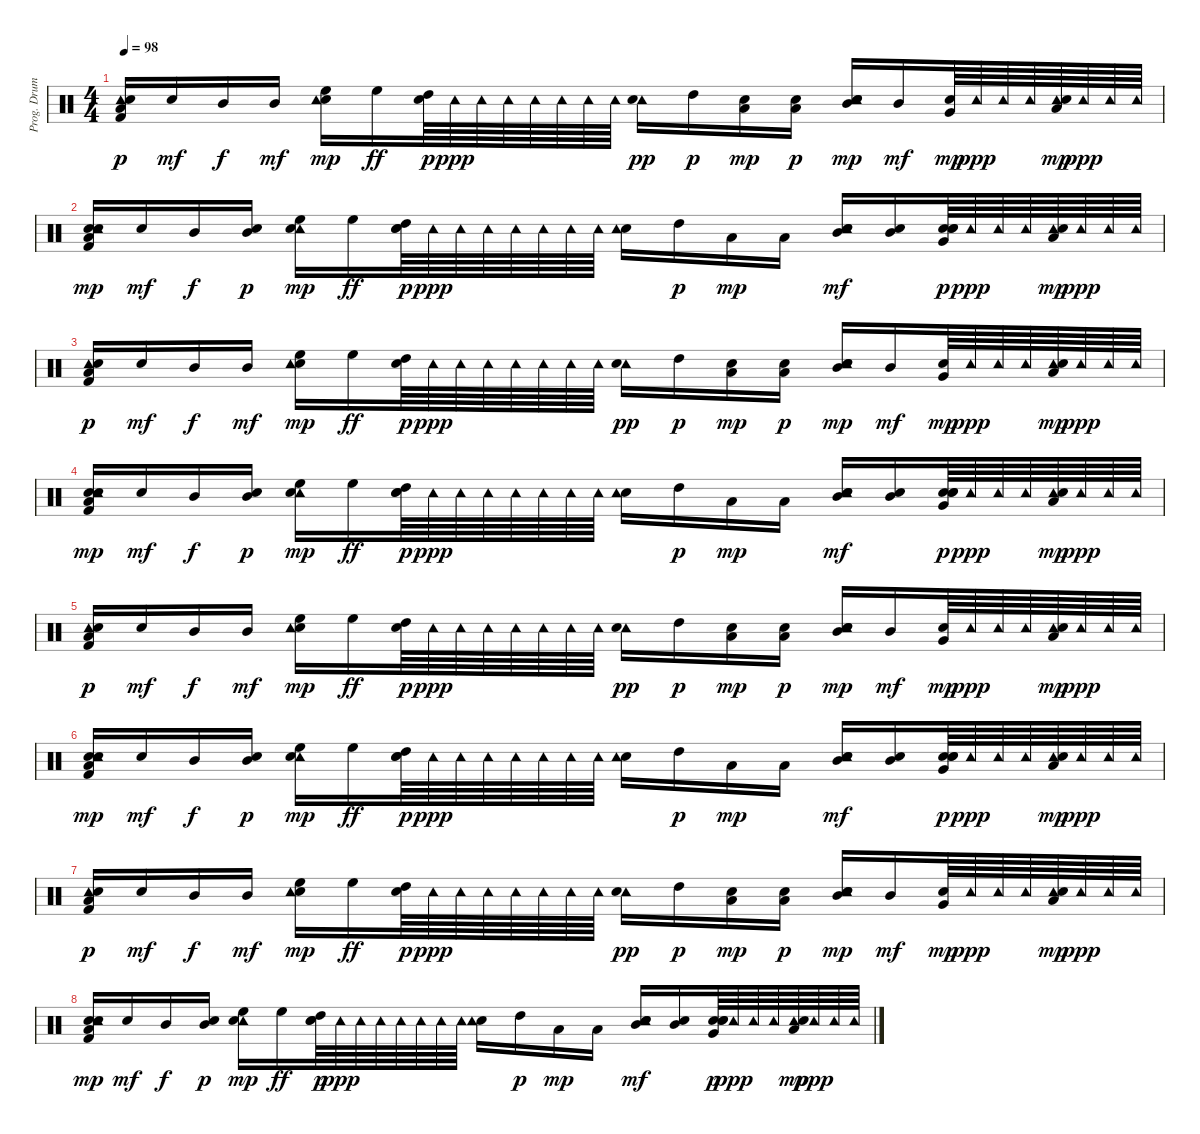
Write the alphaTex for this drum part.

\track ("Prog. Drums" "Prog. Drum") {instrument percussion}
\staff {score}
\articulation defaults
\ts (4 4)
\tempo 98
\clef neutral
\ks c
("Tambourine (hit)" "Snare (hit)" "Low Floor Tom (hit)" "Kick (hit) 2").16{dy p} "Snare (hit)".16{dy mf} "Mid Tom (hit)".16{dy f} "Mid Tom (hit)".16{dy mf} ("Snare (hit) 2" "High Floor Tom (hit)" "Tambourine (hit)").16{dy mp} "High Floor Tom (hit)".16{dy ff} ("High Tom (hit)" "Snare (hit)").64{dy p} "Tambourine (hit)".64{dy ppp} "Tambourine (hit)".64 "Tambourine (hit)".64 "Tambourine (hit)".64 "Tambourine (hit)".64 "Tambourine (hit)".64 "Tambourine (hit)".64 ("Tambourine (hit)" "Snare (hit) 2").16{dy pp} "High Tom (hit)".16{dy p} ("Snare (hit)" "Low Tom (hit)").16{dy mp} ("Low Tom (hit)" "Snare (hit)").16{dy p} ("Snare (hit) 2" "Mid Tom (hit)" "Snare (hit)" "Tambourine (hit)").16{dy mp} "Mid Tom (hit)".16{dy mf} ("Snare (hit)" "Very Low Tom (hit)").64{dy mp} "Tambourine (hit)".64{dy ppp} "Tambourine (hit)".64 "Tambourine (hit)".64 ("Tambourine (hit)" "Snare (hit) 2" "Low Tom (hit)").64{dy mp} "Tambourine (hit)".64{dy ppp} "Tambourine (hit)".64 "Tambourine (hit)".64 |
("Snare (hit)" "Snare (hit)" "Tambourine (hit)" "Kick (hit) 2" "Low Floor Tom (hit)").16{dy mp} "Snare (hit)".16{dy mf} "Mid Tom (hit)".16{dy f} ("Mid Tom (hit)" "Snare (hit)").16{dy p} ("Tambourine (hit)" "High Floor Tom (hit)" "Snare (hit) 2").16{dy mp} "High Floor Tom (hit)".16{dy ff} ("High Tom (hit)" "Snare (hit)" "Snare (hit)").64{dy p} "Tambourine (hit)".64{dy ppp} "Tambourine (hit)".64 "Tambourine (hit)".64 "Tambourine (hit)".64 "Tambourine (hit)".64 "Tambourine (hit)".64 "Tambourine (hit)".64 ("Snare (hit) 2" "Tambourine (hit)").16 "High Tom (hit)".16{dy p} "Low Tom (hit)".16{dy mp} "Low Tom (hit)".16 ("Tambourine (hit)" "Snare (hit)" "Snare (hit) 2" "Mid Tom (hit)").16{dy mf} ("Snare (hit) 2" "Mid Tom (hit)").16 ("Snare (hit) 2" "Very Low Tom (hit)" "Snare (hit)" "Snare (hit)").64{dy p} "Tambourine (hit)".64{dy ppp} "Tambourine (hit)".64 "Tambourine (hit)".64 ("Tambourine (hit)" "Snare (hit) 2" "Low Tom (hit)").64{dy mp} "Tambourine (hit)".64{dy ppp} "Tambourine (hit)".64 "Tambourine (hit)".64 |
("Tambourine (hit)" "Snare (hit)" "Low Floor Tom (hit)" "Kick (hit) 2").16{dy p} "Snare (hit)".16{dy mf} "Mid Tom (hit)".16{dy f} "Mid Tom (hit)".16{dy mf} ("Snare (hit) 2" "High Floor Tom (hit)" "Tambourine (hit)").16{dy mp} "High Floor Tom (hit)".16{dy ff} ("High Tom (hit)" "Snare (hit)").64{dy p} "Tambourine (hit)".64{dy ppp} "Tambourine (hit)".64 "Tambourine (hit)".64 "Tambourine (hit)".64 "Tambourine (hit)".64 "Tambourine (hit)".64 "Tambourine (hit)".64 ("Tambourine (hit)" "Snare (hit) 2").16{dy pp} "High Tom (hit)".16{dy p} ("Snare (hit)" "Low Tom (hit)").16{dy mp} ("Low Tom (hit)" "Snare (hit)").16{dy p} ("Snare (hit) 2" "Mid Tom (hit)" "Snare (hit)" "Tambourine (hit)").16{dy mp} "Mid Tom (hit)".16{dy mf} ("Snare (hit)" "Very Low Tom (hit)").64{dy mp} "Tambourine (hit)".64{dy ppp} "Tambourine (hit)".64 "Tambourine (hit)".64 ("Tambourine (hit)" "Snare (hit) 2" "Low Tom (hit)").64{dy mp} "Tambourine (hit)".64{dy ppp} "Tambourine (hit)".64 "Tambourine (hit)".64 |
("Snare (hit)" "Snare (hit)" "Tambourine (hit)" "Kick (hit) 2" "Low Floor Tom (hit)").16{dy mp} "Snare (hit)".16{dy mf} "Mid Tom (hit)".16{dy f} ("Mid Tom (hit)" "Snare (hit)").16{dy p} ("Tambourine (hit)" "High Floor Tom (hit)" "Snare (hit) 2").16{dy mp} "High Floor Tom (hit)".16{dy ff} ("High Tom (hit)" "Snare (hit)" "Snare (hit)").64{dy p} "Tambourine (hit)".64{dy ppp} "Tambourine (hit)".64 "Tambourine (hit)".64 "Tambourine (hit)".64 "Tambourine (hit)".64 "Tambourine (hit)".64 "Tambourine (hit)".64 ("Snare (hit) 2" "Tambourine (hit)").16 "High Tom (hit)".16{dy p} "Low Tom (hit)".16{dy mp} "Low Tom (hit)".16 ("Tambourine (hit)" "Snare (hit)" "Snare (hit) 2" "Mid Tom (hit)").16{dy mf} ("Snare (hit) 2" "Mid Tom (hit)").16 ("Snare (hit) 2" "Very Low Tom (hit)" "Snare (hit)" "Snare (hit)").64{dy p} "Tambourine (hit)".64{dy ppp} "Tambourine (hit)".64 "Tambourine (hit)".64 ("Tambourine (hit)" "Snare (hit) 2" "Low Tom (hit)").64{dy mp} "Tambourine (hit)".64{dy ppp} "Tambourine (hit)".64 "Tambourine (hit)".64 |
("Tambourine (hit)" "Snare (hit)" "Low Floor Tom (hit)" "Kick (hit) 2").16{dy p} "Snare (hit)".16{dy mf} "Mid Tom (hit)".16{dy f} "Mid Tom (hit)".16{dy mf} ("Snare (hit) 2" "High Floor Tom (hit)" "Tambourine (hit)").16{dy mp} "High Floor Tom (hit)".16{dy ff} ("High Tom (hit)" "Snare (hit)").64{dy p} "Tambourine (hit)".64{dy ppp} "Tambourine (hit)".64 "Tambourine (hit)".64 "Tambourine (hit)".64 "Tambourine (hit)".64 "Tambourine (hit)".64 "Tambourine (hit)".64 ("Tambourine (hit)" "Snare (hit) 2").16{dy pp} "High Tom (hit)".16{dy p} ("Snare (hit)" "Low Tom (hit)").16{dy mp} ("Low Tom (hit)" "Snare (hit)").16{dy p} ("Snare (hit) 2" "Mid Tom (hit)" "Snare (hit)" "Tambourine (hit)").16{dy mp} "Mid Tom (hit)".16{dy mf} ("Snare (hit)" "Very Low Tom (hit)").64{dy mp} "Tambourine (hit)".64{dy ppp} "Tambourine (hit)".64 "Tambourine (hit)".64 ("Tambourine (hit)" "Snare (hit) 2" "Low Tom (hit)").64{dy mp} "Tambourine (hit)".64{dy ppp} "Tambourine (hit)".64 "Tambourine (hit)".64 |
("Snare (hit)" "Snare (hit)" "Tambourine (hit)" "Kick (hit) 2" "Low Floor Tom (hit)").16{dy mp} "Snare (hit)".16{dy mf} "Mid Tom (hit)".16{dy f} ("Mid Tom (hit)" "Snare (hit)").16{dy p} ("Tambourine (hit)" "High Floor Tom (hit)" "Snare (hit) 2").16{dy mp} "High Floor Tom (hit)".16{dy ff} ("High Tom (hit)" "Snare (hit)" "Snare (hit)").64{dy p} "Tambourine (hit)".64{dy ppp} "Tambourine (hit)".64 "Tambourine (hit)".64 "Tambourine (hit)".64 "Tambourine (hit)".64 "Tambourine (hit)".64 "Tambourine (hit)".64 ("Snare (hit) 2" "Tambourine (hit)").16 "High Tom (hit)".16{dy p} "Low Tom (hit)".16{dy mp} "Low Tom (hit)".16 ("Tambourine (hit)" "Snare (hit)" "Snare (hit) 2" "Mid Tom (hit)").16{dy mf} ("Snare (hit) 2" "Mid Tom (hit)").16 ("Snare (hit) 2" "Very Low Tom (hit)" "Snare (hit)" "Snare (hit)").64{dy p} "Tambourine (hit)".64{dy ppp} "Tambourine (hit)".64 "Tambourine (hit)".64 ("Tambourine (hit)" "Snare (hit) 2" "Low Tom (hit)").64{dy mp} "Tambourine (hit)".64{dy ppp} "Tambourine (hit)".64 "Tambourine (hit)".64 |
("Tambourine (hit)" "Snare (hit)" "Low Floor Tom (hit)" "Kick (hit) 2").16{dy p} "Snare (hit)".16{dy mf} "Mid Tom (hit)".16{dy f} "Mid Tom (hit)".16{dy mf} ("Snare (hit) 2" "High Floor Tom (hit)" "Tambourine (hit)").16{dy mp} "High Floor Tom (hit)".16{dy ff} ("High Tom (hit)" "Snare (hit)").64{dy p} "Tambourine (hit)".64{dy ppp} "Tambourine (hit)".64 "Tambourine (hit)".64 "Tambourine (hit)".64 "Tambourine (hit)".64 "Tambourine (hit)".64 "Tambourine (hit)".64 ("Tambourine (hit)" "Snare (hit) 2").16{dy pp} "High Tom (hit)".16{dy p} ("Snare (hit)" "Low Tom (hit)").16{dy mp} ("Low Tom (hit)" "Snare (hit)").16{dy p} ("Snare (hit) 2" "Mid Tom (hit)" "Snare (hit)" "Tambourine (hit)").16{dy mp} "Mid Tom (hit)".16{dy mf} ("Snare (hit)" "Very Low Tom (hit)").64{dy mp} "Tambourine (hit)".64{dy ppp} "Tambourine (hit)".64 "Tambourine (hit)".64 ("Tambourine (hit)" "Snare (hit) 2" "Low Tom (hit)").64{dy mp} "Tambourine (hit)".64{dy ppp} "Tambourine (hit)".64 "Tambourine (hit)".64 |
("Snare (hit)" "Snare (hit)" "Tambourine (hit)" "Kick (hit) 2" "Low Floor Tom (hit)").16{dy mp} "Snare (hit)".16{dy mf} "Mid Tom (hit)".16{dy f} ("Mid Tom (hit)" "Snare (hit)").16{dy p} ("Tambourine (hit)" "High Floor Tom (hit)" "Snare (hit) 2").16{dy mp} "High Floor Tom (hit)".16{dy ff} ("High Tom (hit)" "Snare (hit)" "Snare (hit)").64{dy p} "Tambourine (hit)".64{dy ppp} "Tambourine (hit)".64 "Tambourine (hit)".64 "Tambourine (hit)".64 "Tambourine (hit)".64 "Tambourine (hit)".64 "Tambourine (hit)".64 ("Snare (hit) 2" "Tambourine (hit)").16 "High Tom (hit)".16{dy p} "Low Tom (hit)".16{dy mp} "Low Tom (hit)".16 ("Tambourine (hit)" "Snare (hit)" "Snare (hit) 2" "Mid Tom (hit)").16{dy mf} ("Snare (hit) 2" "Mid Tom (hit)").16 ("Snare (hit) 2" "Very Low Tom (hit)" "Snare (hit)" "Snare (hit)").64{dy p} "Tambourine (hit)".64{dy ppp} "Tambourine (hit)".64 "Tambourine (hit)".64 ("Tambourine (hit)" "Snare (hit) 2" "Low Tom (hit)").64{dy mp} "Tambourine (hit)".64{dy ppp} "Tambourine (hit)".64 "Tambourine (hit)".64
